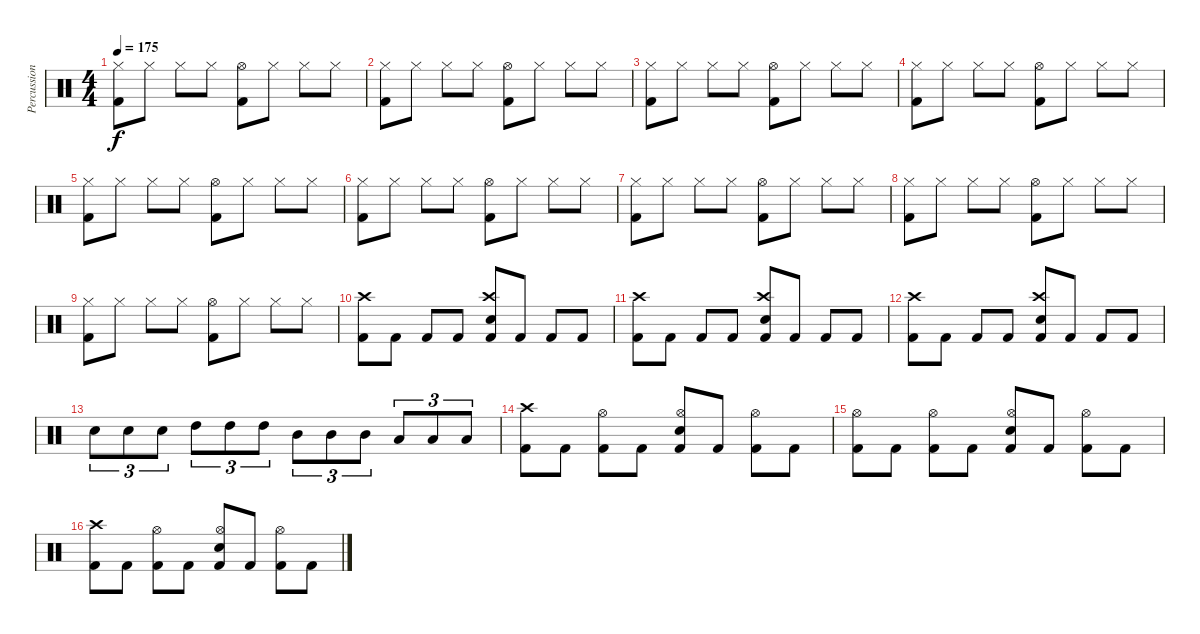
\track ("Percussion" "Percussion") {instrument percussion}
\staff {score}
\articulation defaults
\ts (4 4)
\tempo 175
\clef neutral
\ks c
("Hi-Hat (closed)" "Kick (hit) 2").8{dy f} "Hi-Hat (closed)".8 "Hi-Hat (closed)".8 "Hi-Hat (closed)".8 ("Hi-Hat (open)" "Kick (hit) 2").8 "Hi-Hat (closed)".8 "Hi-Hat (closed)".8 "Hi-Hat (closed)".8 |
("Hi-Hat (closed)" "Kick (hit) 2").8 "Hi-Hat (closed)".8 "Hi-Hat (closed)".8 "Hi-Hat (closed)".8 ("Hi-Hat (open)" "Kick (hit) 2").8 "Hi-Hat (closed)".8 "Hi-Hat (closed)".8 "Hi-Hat (closed)".8 |
("Hi-Hat (closed)" "Kick (hit) 2").8 "Hi-Hat (closed)".8 "Hi-Hat (closed)".8 "Hi-Hat (closed)".8 ("Hi-Hat (open)" "Kick (hit) 2").8 "Hi-Hat (closed)".8 "Hi-Hat (closed)".8 "Hi-Hat (closed)".8 |
("Hi-Hat (closed)" "Kick (hit) 2").8 "Hi-Hat (closed)".8 "Hi-Hat (closed)".8 "Hi-Hat (closed)".8 ("Hi-Hat (open)" "Kick (hit) 2").8 "Hi-Hat (closed)".8 "Hi-Hat (closed)".8 "Hi-Hat (closed)".8 |
("Hi-Hat (closed)" "Kick (hit) 2").8 "Hi-Hat (closed)".8 "Hi-Hat (closed)".8 "Hi-Hat (closed)".8 ("Hi-Hat (open)" "Kick (hit) 2").8 "Hi-Hat (closed)".8 "Hi-Hat (closed)".8 "Hi-Hat (closed)".8 |
("Hi-Hat (closed)" "Kick (hit) 2").8 "Hi-Hat (closed)".8 "Hi-Hat (closed)".8 "Hi-Hat (closed)".8 ("Hi-Hat (open)" "Kick (hit) 2").8 "Hi-Hat (closed)".8 "Hi-Hat (closed)".8 "Hi-Hat (closed)".8 |
("Hi-Hat (closed)" "Kick (hit) 2").8 "Hi-Hat (closed)".8 "Hi-Hat (closed)".8 "Hi-Hat (closed)".8 ("Hi-Hat (open)" "Kick (hit) 2").8 "Hi-Hat (closed)".8 "Hi-Hat (closed)".8 "Hi-Hat (closed)".8 |
("Hi-Hat (closed)" "Kick (hit) 2").8 "Hi-Hat (closed)".8 "Hi-Hat (closed)".8 "Hi-Hat (closed)".8 ("Hi-Hat (open)" "Kick (hit) 2").8 "Hi-Hat (closed)".8 "Hi-Hat (closed)".8 "Hi-Hat (closed)".8 |
("Hi-Hat (closed)" "Kick (hit) 2").8 "Hi-Hat (closed)".8 "Hi-Hat (closed)".8 "Hi-Hat (closed)".8 ("Hi-Hat (open)" "Kick (hit) 2").8 "Hi-Hat (closed)".8 "Hi-Hat (closed)".8 "Hi-Hat (closed)".8 |
("Kick (hit) 2" "Crash high (hit)").8 "Kick (hit) 2".8 "Kick (hit) 2".8 "Kick (hit) 2".8 ("Kick (hit) 2" "Crash high (hit)" "Electric Snare (hit)").8 "Kick (hit) 2".8 "Kick (hit) 2".8 "Kick (hit) 2".8 |
("Kick (hit) 2" "Crash high (hit)").8 "Kick (hit) 2".8 "Kick (hit) 2".8 "Kick (hit) 2".8 ("Kick (hit) 2" "Crash high (hit)" "Electric Snare (hit)").8 "Kick (hit) 2".8 "Kick (hit) 2".8 "Kick (hit) 2".8 |
("Kick (hit) 2" "Crash high (hit)").8 "Kick (hit) 2".8 "Kick (hit) 2".8 "Kick (hit) 2".8 ("Kick (hit) 2" "Crash high (hit)" "Electric Snare (hit)").8 "Kick (hit) 2".8 "Kick (hit) 2".8 "Kick (hit) 2".8 |
"Electric Snare (hit)".8{tu (3 2)} "Electric Snare (hit)".8{tu (3 2)} "Electric Snare (hit)".8{tu (3 2)} "High Tom (hit)".8{tu (3 2)} "High Tom (hit)".8{tu (3 2)} "High Tom (hit)".8{tu (3 2)} "Mid Tom (hit)".8{tu (3 2)} "Mid Tom (hit)".8{tu (3 2)} "Mid Tom (hit)".8{tu (3 2)} "Low Tom (hit)".8{tu (3 2)} "Low Tom (hit)".8{tu (3 2)} "Low Tom (hit)".8{tu (3 2)} |
("Kick (hit) 2" "Crash high (hit)").8 "Kick (hit) 2".8 ("Kick (hit) 2" "Hi-Hat (open)").8 "Kick (hit) 2".8 ("Kick (hit) 2" "Hi-Hat (open)" "Electric Snare (hit)").8 "Kick (hit) 2".8 ("Kick (hit) 2" "Hi-Hat (open)").8 "Kick (hit) 2".8 |
("Kick (hit) 2" "Hi-Hat (open)").8 "Kick (hit) 2".8 ("Kick (hit) 2" "Hi-Hat (open)").8 "Kick (hit) 2".8 ("Kick (hit) 2" "Hi-Hat (open)" "Electric Snare (hit)").8 "Kick (hit) 2".8 ("Kick (hit) 2" "Hi-Hat (open)").8 "Kick (hit) 2".8 |
("Kick (hit) 2" "Crash high (hit)").8 "Kick (hit) 2".8 ("Kick (hit) 2" "Hi-Hat (open)").8 "Kick (hit) 2".8 ("Kick (hit) 2" "Hi-Hat (open)" "Electric Snare (hit)").8 "Kick (hit) 2".8 ("Kick (hit) 2" "Hi-Hat (open)").8 "Kick (hit) 2".8
